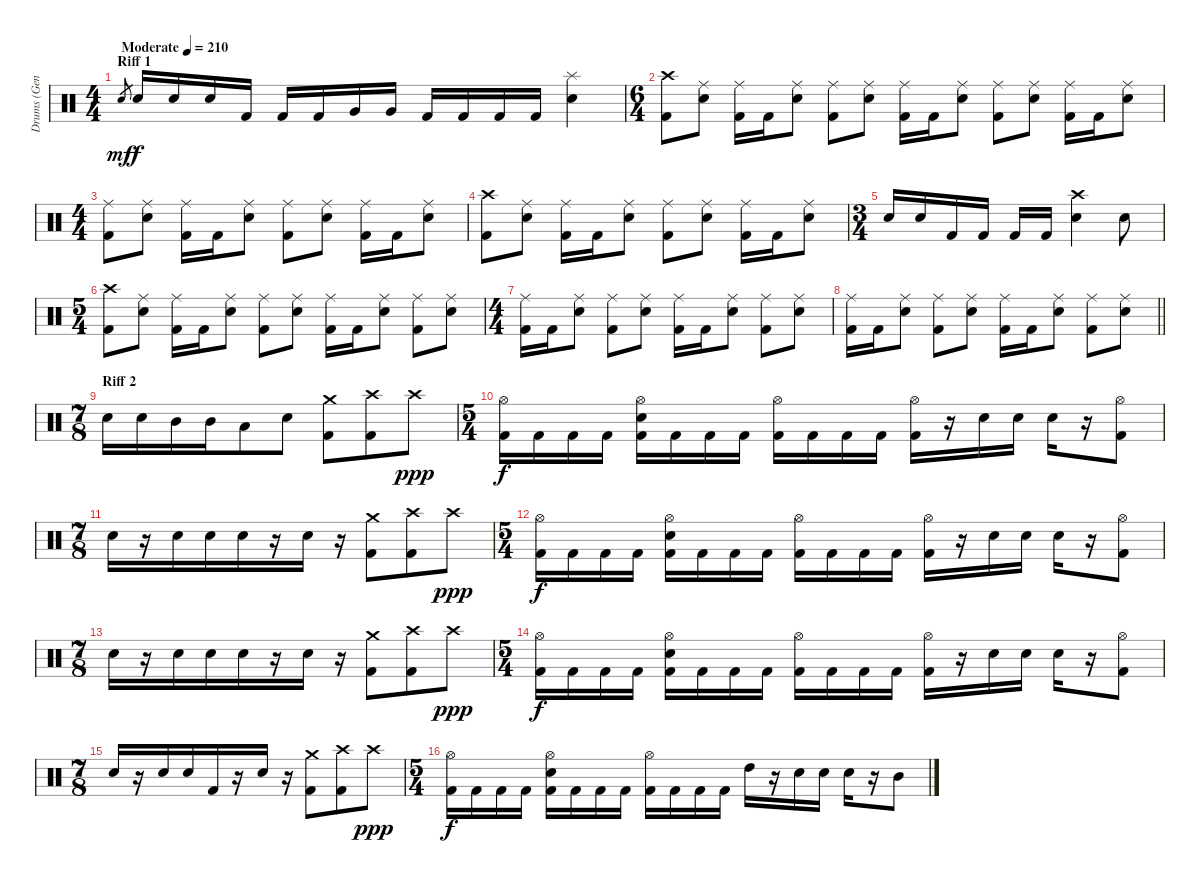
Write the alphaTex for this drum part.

\track ("Drums (Gene Hoglan)" "Drums (Gen") {instrument percussion}
\staff {score}
\articulation defaults
\ts (4 4)
\section ("" "Riff 1")
\tempo (210 "Moderate")
\clef neutral
\ks c "Snare (hit) 2".8{gr dy mf} "Snare (hit) 2".16{dy f} "Snare (hit) 2".16 "Snare (hit) 2".16 "Kick (hit) 2".16 "Kick (hit) 2".16 "Kick (hit) 2".16 "Very Low Tom (hit)".16 "Very Low Tom (hit)".16 "Kick (hit) 2".16 "Kick (hit) 2".16 "Kick (hit) 2".16 "Kick (hit) 2".16
("Splash (hit)" "Snare (hit) 2").4 |
\ts (6 4)
("Crash high (hit)" "Kick (hit) 2").8 ("Ride (middle)" "Snare (hit) 2").8 ("Ride (middle)" "Kick (hit) 2").16 "Kick (hit) 2".16 ("Ride (middle)" "Snare (hit) 2").8 ("Ride (middle)" "Kick (hit) 2").8 ("Ride (middle)" "Snare (hit) 2").8 ("Ride (middle)" "Kick (hit) 2").16 "Kick (hit) 2".16 ("Ride (middle)" "Snare (hit) 2").8 ("Ride (middle)" "Kick (hit) 2").8 ("Ride (middle)" "Snare (hit) 2").8 ("Ride (middle)" "Kick (hit) 2").16 "Kick (hit) 2".16 ("Ride (middle)" "Snare (hit) 2").8 |
\ts (4 4)
("Ride (middle)" "Kick (hit) 2").8 ("Ride (middle)" "Snare (hit) 2").8 ("Ride (middle)" "Kick (hit) 2").16 "Kick (hit) 2".16 ("Ride (middle)" "Snare (hit) 2").8 ("Ride (middle)" "Kick (hit) 2").8 ("Ride (middle)" "Snare (hit) 2").8 ("Ride (middle)" "Kick (hit) 2").16 "Kick (hit) 2".16 ("Ride (middle)" "Snare (hit) 2").8 |
("Crash high (hit)" "Kick (hit) 2").8 ("Ride (middle)" "Snare (hit) 2").8 ("Ride (middle)" "Kick (hit) 2").16 "Kick (hit) 2".16 ("Ride (middle)" "Snare (hit) 2").8 ("Ride (middle)" "Kick (hit) 2").8 ("Ride (middle)" "Snare (hit) 2").8 ("Ride (middle)" "Kick (hit) 2").16 "Kick (hit) 2".16 ("Ride (middle)" "Snare (hit) 2").8 |
\ts (3 4)
"Snare (hit) 2".16 "Snare (hit) 2".16 "Kick (hit) 2".16 "Kick (hit) 2".16 "Kick (hit) 2".16 "Kick (hit) 2".16 ("Crash high (hit)" "Snare (hit) 2").4 "Snare (hit) 2".8 |
\ts (5 4)
("Crash high (hit)" "Kick (hit) 2").8 ("Ride (middle)" "Snare (hit) 2").8 ("Ride (middle)" "Kick (hit) 2").16 "Kick (hit) 2".16 ("Ride (middle)" "Snare (hit) 2").8 ("Ride (middle)" "Kick (hit) 2").8 ("Ride (middle)" "Snare (hit) 2").8 ("Ride (middle)" "Kick (hit) 2").16 "Kick (hit) 2".16 ("Ride (middle)" "Snare (hit) 2").8 ("Ride (middle)" "Kick (hit) 2").8 ("Ride (middle)" "Snare (hit) 2").8 |
\ts (4 4)
("Ride (middle)" "Kick (hit) 2").16 "Kick (hit) 2".16 ("Ride (middle)" "Snare (hit) 2").8 ("Ride (middle)" "Kick (hit) 2").8 ("Ride (middle)" "Snare (hit) 2").8 ("Ride (middle)" "Kick (hit) 2").16 "Kick (hit) 2".16 ("Ride (middle)" "Snare (hit) 2").8 ("Ride (middle)" "Kick (hit) 2").8 ("Ride (middle)" "Snare (hit) 2").8 |
\barLineRight lightlight
("Ride (middle)" "Kick (hit) 2").16 "Kick (hit) 2".16 ("Ride (middle)" "Snare (hit) 2").8 ("Ride (middle)" "Kick (hit) 2").8 ("Ride (middle)" "Snare (hit) 2").8 ("Ride (middle)" "Kick (hit) 2").16 "Kick (hit) 2".16 ("Ride (middle)" "Snare (hit) 2").8 ("Ride (middle)" "Kick (hit) 2").8 ("Ride (middle)" "Snare (hit) 2").8 |
\ts (7 8)
\section ("" "Riff 2")
"Snare (hit) 2".16 "Snare (hit) 2".16 "Mid Tom (hit)".16 "Mid Tom (hit)".16 "Low Tom (hit)".8 "Snare (hit) 2".8 ("Crash medium (hit)" "Kick (hit) 2").8 ("Crash high (hit)" "Kick (hit) 2").8 "Crash high (hit)".8{dy ppp} |
\ts (5 4)
("Hi-Hat (open)" "Kick (hit) 2").16{dy f} "Kick (hit) 2".16 "Kick (hit) 2".16 "Kick (hit) 2".16 ("Hi-Hat (open)" "Snare (hit) 2" "Kick (hit) 2").16 "Kick (hit) 2".16 "Kick (hit) 2".16 "Kick (hit) 2".16 ("Hi-Hat (open)" "Kick (hit) 2").16 "Kick (hit) 2".16 "Kick (hit) 2".16 "Kick (hit) 2".16 ("Hi-Hat (open)" "Kick (hit) 2").16 r.16 "Snare (hit) 2".16 "Snare (hit) 2".16 "Snare (hit) 2".16 r.16 ("Hi-Hat (open)" "Kick (hit) 2").8 |
\ts (7 8)
"Snare (hit) 2".16 r.16 "Snare (hit) 2".16 "Snare (hit) 2".16 "Snare (hit) 2".16 r.16 "Snare (hit) 2".16 r.16 ("Crash medium (hit)" "Kick (hit) 2").8 ("Crash high (hit)" "Kick (hit) 2").8 "Crash high (hit)".8{dy ppp} |
\ts (5 4)
("Hi-Hat (open)" "Kick (hit) 2").16{dy f} "Kick (hit) 2".16 "Kick (hit) 2".16 "Kick (hit) 2".16 ("Hi-Hat (open)" "Snare (hit) 2" "Kick (hit) 2").16 "Kick (hit) 2".16 "Kick (hit) 2".16 "Kick (hit) 2".16 ("Hi-Hat (open)" "Kick (hit) 2").16 "Kick (hit) 2".16 "Kick (hit) 2".16 "Kick (hit) 2".16 ("Hi-Hat (open)" "Kick (hit) 2").16 r.16 "Snare (hit) 2".16 "Snare (hit) 2".16 "Snare (hit) 2".16 r.16 ("Hi-Hat (open)" "Kick (hit) 2").8 |
\ts (7 8)
"Snare (hit) 2".16 r.16 "Snare (hit) 2".16 "Snare (hit) 2".16 "Snare (hit) 2".16 r.16 "Snare (hit) 2".16 r.16 ("Crash medium (hit)" "Kick (hit) 2").8 ("Crash high (hit)" "Kick (hit) 2").8 "Crash high (hit)".8{dy ppp} |
\ts (5 4)
("Hi-Hat (open)" "Kick (hit) 2").16{dy f} "Kick (hit) 2".16 "Kick (hit) 2".16 "Kick (hit) 2".16 ("Hi-Hat (open)" "Snare (hit) 2" "Kick (hit) 2").16 "Kick (hit) 2".16 "Kick (hit) 2".16 "Kick (hit) 2".16 ("Hi-Hat (open)" "Kick (hit) 2").16 "Kick (hit) 2".16 "Kick (hit) 2".16 "Kick (hit) 2".16 ("Hi-Hat (open)" "Kick (hit) 2").16 r.16 "Snare (hit) 2".16 "Snare (hit) 2".16 "Snare (hit) 2".16 r.16 ("Hi-Hat (open)" "Kick (hit) 2").8 |
\ts (7 8)
"Snare (hit) 2".16 r.16 "Snare (hit) 2".16 "Snare (hit) 2".16 "Kick (hit) 2".16 r.16 "Snare (hit) 2".16 r.16 ("Crash medium (hit)" "Kick (hit) 2").8 ("Crash high (hit)" "Kick (hit) 2").8 "Crash high (hit)".8{dy ppp} |
\ts (5 4)
("Hi-Hat (open)" "Kick (hit) 2").16{dy f} "Kick (hit) 2".16 "Kick (hit) 2".16 "Kick (hit) 2".16 ("Hi-Hat (open)" "Snare (hit) 2" "Kick (hit) 2").16 "Kick (hit) 2".16 "Kick (hit) 2".16 "Kick (hit) 2".16 ("Hi-Hat (open)" "Kick (hit) 2").16 "Kick (hit) 2".16 "Kick (hit) 2".16 "Kick (hit) 2".16 "High Tom (hit)".16 r.16 "Snare (hit) 2".16 "Snare (hit) 2".16 "Snare (hit) 2".16 r.16 "Mid Tom (hit)".8
